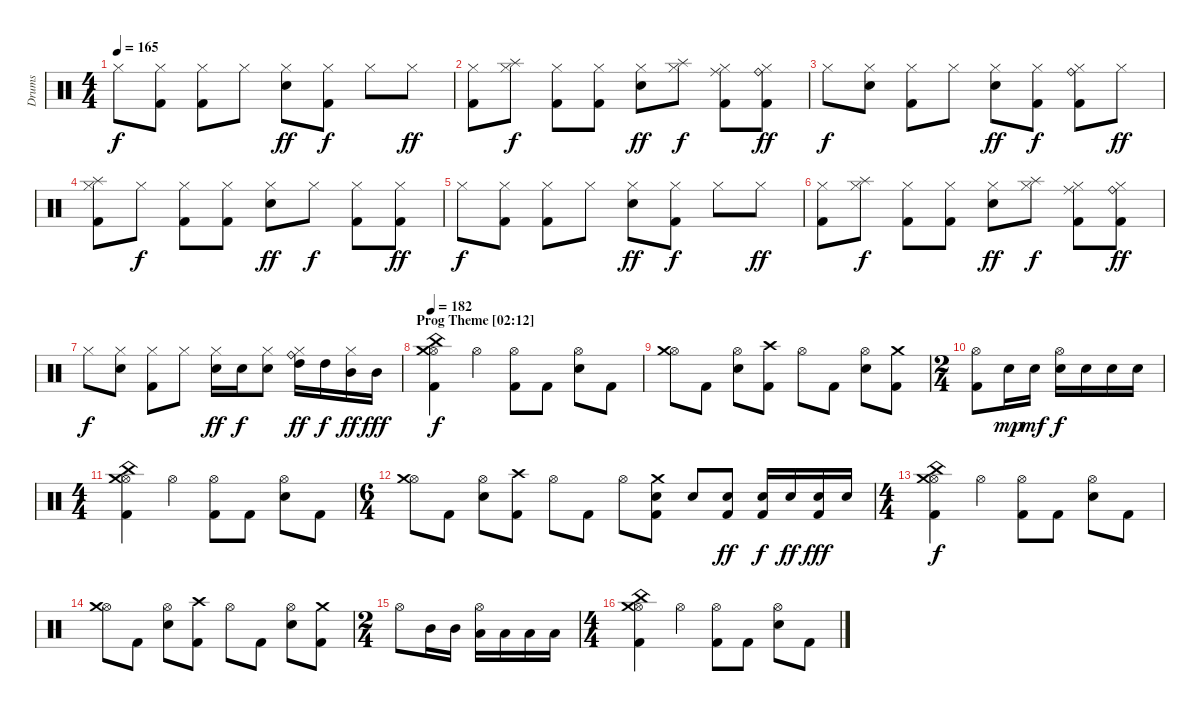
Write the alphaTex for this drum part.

\track ("Drums" "Drums") {instrument percussion}
\staff {score}
\articulation defaults
\ts (4 4)
\tempo 165
\clef neutral
\ks c "Hi-Hat (closed)".8{dy f}
("Hi-Hat (closed)" "Kick (hit) 2").8 ("Hi-Hat (closed)" "Kick (hit) 2").8 "Hi-Hat (closed)".8 ("Hi-Hat (closed)" "Electric Snare (hit)").8{dy ff} ("Hi-Hat (closed)" "Kick (hit) 2").8{dy f} "Hi-Hat (closed)".8 "Hi-Hat (closed)".8{dy ff} |
("Hi-Hat (closed)" "Kick (hit) 2").8 ("Hi-Hat (closed)" "Splash (hit)").8{dy f} ("Hi-Hat (closed)" "Kick (hit) 2").8 ("Hi-Hat (closed)" "Kick (hit) 2").8 ("Hi-Hat (closed)" "Electric Snare (hit)").8{dy ff} ("Hi-Hat (closed)" "Splash (hit)").8{dy f} ("Hi-Hat (closed)" "Ride (middle)" "Kick (hit) 2").8 ("Hi-Hat (closed)" "Ride (bell)" "Kick (hit) 2").8{dy ff} |
"Hi-Hat (closed)".8{dy f} ("Hi-Hat (closed)" "Electric Snare (hit)").8 ("Hi-Hat (closed)" "Kick (hit) 2").8 "Hi-Hat (closed)".8 ("Hi-Hat (closed)" "Electric Snare (hit)").8{dy ff} ("Hi-Hat (closed)" "Kick (hit) 2").8{dy f} ("Hi-Hat (closed)" "Ride (bell)" "Kick (hit) 2").8 "Hi-Hat (closed)".8{dy ff} |
("Hi-Hat (closed)" "Splash (hit)" "Kick (hit) 2").8 "Hi-Hat (closed)".8{dy f} ("Hi-Hat (closed)" "Kick (hit) 2").8 ("Hi-Hat (closed)" "Kick (hit) 2").8 ("Hi-Hat (closed)" "Electric Snare (hit)").8{dy ff} "Hi-Hat (closed)".8{dy f} ("Hi-Hat (closed)" "Kick (hit) 2").8 ("Hi-Hat (closed)" "Kick (hit) 2").8{dy ff} |
"Hi-Hat (closed)".8{dy f} ("Hi-Hat (closed)" "Kick (hit) 2").8 ("Hi-Hat (closed)" "Kick (hit) 2").8 "Hi-Hat (closed)".8 ("Hi-Hat (closed)" "Electric Snare (hit)").8{dy ff} ("Hi-Hat (closed)" "Kick (hit) 2").8{dy f} "Hi-Hat (closed)".8 "Hi-Hat (closed)".8{dy ff} |
("Hi-Hat (closed)" "Kick (hit) 2").8 ("Hi-Hat (closed)" "Splash (hit)").8{dy f} ("Hi-Hat (closed)" "Kick (hit) 2").8 ("Hi-Hat (closed)" "Kick (hit) 2").8 ("Hi-Hat (closed)" "Electric Snare (hit)").8{dy ff} ("Hi-Hat (closed)" "Splash (hit)").8{dy f} ("Hi-Hat (closed)" "Ride (middle)" "Kick (hit) 2").8 ("Hi-Hat (closed)" "Ride (bell)" "Kick (hit) 2").8{dy ff} |
"Hi-Hat (closed)".8{dy f} ("Hi-Hat (closed)" "Electric Snare (hit)").8 ("Hi-Hat (closed)" "Kick (hit) 2").8 "Hi-Hat (closed)".8 ("Hi-Hat (closed)" "Electric Snare (hit)").16{dy ff} "Electric Snare (hit)".16{dy f} ("Hi-Hat (closed)" "Electric Snare (hit)").8 ("Hi-Hat (closed)" "Ride (bell)" "High Tom (hit)").16{dy ff} "High Tom (hit)".16{dy f} ("Hi-Hat (closed)" "Mid Tom (hit)").16{dy ff} "Mid Tom (hit)".16{dy fff} |
\section ("" "Prog Theme [02:12]")
\tempo 182
("Hi-Hat (open)" "Crash medium (hit)" "China (hit)" "Kick (hit) 2").4{dy f} "Hi-Hat (open)".4 ("Hi-Hat (open)" "Kick (hit) 2").8 "Kick (hit) 2".8 ("Hi-Hat (open)" "Electric Snare (hit)").8 "Kick (hit) 2".8 |
("Hi-Hat (open)" "Crash medium (hit)").8 "Kick (hit) 2".8 ("Hi-Hat (open)" "Electric Snare (hit)").8 ("Crash high (hit)" "Kick (hit) 2").8 "Hi-Hat (open)".8 "Kick (hit) 2".8 ("Hi-Hat (open)" "Electric Snare (hit)").8 ("Crash medium (hit)" "Kick (hit) 2").8 |
\ts (2 4)
("Hi-Hat (open)" "Kick (hit) 2").8 "Electric Snare (hit)".16{dy mp} "Electric Snare (hit)".16{dy mf} ("Hi-Hat (open)" "Electric Snare (hit)").16{dy f} "Electric Snare (hit)".16 "Electric Snare (hit)".16 "Electric Snare (hit)".16 |
\ts (4 4)
("Hi-Hat (open)" "Crash medium (hit)" "China (hit)" "Kick (hit) 2").4 "Hi-Hat (open)".4 ("Hi-Hat (open)" "Kick (hit) 2").8 "Kick (hit) 2".8 ("Hi-Hat (open)" "Electric Snare (hit)").8 "Kick (hit) 2".8 |
\ts (6 4)
("Hi-Hat (open)" "Crash medium (hit)").8 "Kick (hit) 2".8 ("Hi-Hat (open)" "Electric Snare (hit)").8 ("Crash high (hit)" "Kick (hit) 2").8 "Hi-Hat (open)".8 "Kick (hit) 2".8 "Hi-Hat (open)".8 ("Crash medium (hit)" "Electric Snare (hit)" "Kick (hit) 2").8 "Electric Snare (hit)".8 ("Electric Snare (hit)" "Kick (hit) 2").8{dy ff} ("Electric Snare (hit)" "Kick (hit) 2").16{dy f} "Electric Snare (hit)".16{dy ff} ("Electric Snare (hit)" "Kick (hit) 2").16{dy fff} "Electric Snare (hit)".16 |
\ts (4 4)
("Hi-Hat (open)" "Crash medium (hit)" "China (hit)" "Kick (hit) 2").4{dy f} "Hi-Hat (open)".4 ("Hi-Hat (open)" "Kick (hit) 2").8 "Kick (hit) 2".8 ("Hi-Hat (open)" "Electric Snare (hit)").8 "Kick (hit) 2".8 |
("Hi-Hat (open)" "Crash medium (hit)").8 "Kick (hit) 2".8 ("Hi-Hat (open)" "Electric Snare (hit)").8 ("Crash high (hit)" "Kick (hit) 2").8 "Hi-Hat (open)".8 "Kick (hit) 2".8 ("Hi-Hat (open)" "Electric Snare (hit)").8 ("Crash medium (hit)" "Kick (hit) 2").8 |
\ts (2 4)
"Hi-Hat (open)".8 "Mid Tom (hit)".16 "Mid Tom (hit)".16 ("Hi-Hat (open)" "Low Tom (hit)").16 "Low Tom (hit)".16 "Low Tom (hit)".16 "Low Tom (hit)".16 |
\ts (4 4)
("Hi-Hat (open)" "Crash medium (hit)" "China (hit)" "Kick (hit) 2").4 "Hi-Hat (open)".4 ("Hi-Hat (open)" "Kick (hit) 2").8 "Kick (hit) 2".8 ("Hi-Hat (open)" "Electric Snare (hit)").8 "Kick (hit) 2".8
